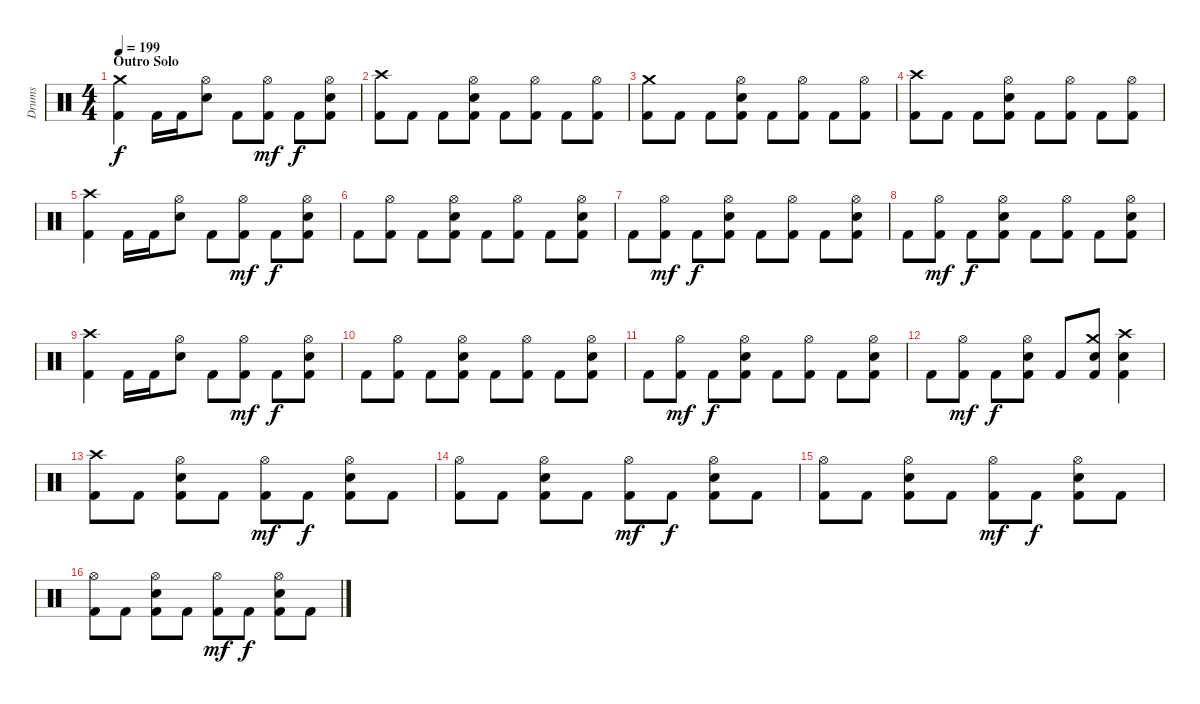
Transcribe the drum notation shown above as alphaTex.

\track ("Drums" "Drums") {instrument percussion}
\staff {score}
\articulation defaults
\ts (4 4)
\section ("" "Outro Solo")
\tempo 199
\clef neutral
\ks c
("Kick (hit) 2" "Crash medium (hit)").4{dy f} "Kick (hit) 2".16 "Kick (hit) 2".16 ("Snare (hit) 2" "Hi-Hat (open)").8 "Kick (hit) 2".8 ("Kick (hit) 2" "Hi-Hat (open)").8{dy mf} "Kick (hit) 2".8{dy f} ("Kick (hit) 2" "Snare (hit) 2" "Hi-Hat (open)").8 |
("Kick (hit) 2" "Crash high (hit)").8 "Kick (hit) 2".8 "Kick (hit) 2".8 ("Kick (hit) 2" "Snare (hit) 2" "Hi-Hat (open)").8 "Kick (hit) 2".8 ("Kick (hit) 2" "Hi-Hat (open)").8 "Kick (hit) 2".8 ("Kick (hit) 2" "Hi-Hat (open)").8 |
("Kick (hit) 2" "Crash medium (hit)").8 "Kick (hit) 2".8 "Kick (hit) 2".8 ("Kick (hit) 2" "Snare (hit) 2" "Hi-Hat (open)").8 "Kick (hit) 2".8 ("Kick (hit) 2" "Hi-Hat (open)").8 "Kick (hit) 2".8 ("Kick (hit) 2" "Hi-Hat (open)").8 |
("Kick (hit) 2" "Crash high (hit)").8 "Kick (hit) 2".8 "Kick (hit) 2".8 ("Kick (hit) 2" "Snare (hit) 2" "Hi-Hat (open)").8 "Kick (hit) 2".8 ("Kick (hit) 2" "Hi-Hat (open)").8 "Kick (hit) 2".8 ("Kick (hit) 2" "Hi-Hat (open)").8 |
("Kick (hit) 2" "Crash high (hit)").4 "Kick (hit) 2".16 "Kick (hit) 2".16 ("Snare (hit) 2" "Hi-Hat (open)").8 "Kick (hit) 2".8 ("Kick (hit) 2" "Hi-Hat (open)").8{dy mf} "Kick (hit) 2".8{dy f} ("Kick (hit) 2" "Snare (hit) 2" "Hi-Hat (open)").8 |
"Kick (hit) 2".8 ("Kick (hit) 2" "Hi-Hat (open)").8 "Kick (hit) 2".8 ("Kick (hit) 2" "Snare (hit) 2" "Hi-Hat (open)").8 "Kick (hit) 2".8 ("Kick (hit) 2" "Hi-Hat (open)").8 "Kick (hit) 2".8 ("Kick (hit) 2" "Snare (hit) 2" "Hi-Hat (open)").8 |
"Kick (hit) 2".8 ("Kick (hit) 2" "Hi-Hat (open)").8{dy mf} "Kick (hit) 2".8{dy f} ("Kick (hit) 2" "Snare (hit) 2" "Hi-Hat (open)").8 "Kick (hit) 2".8 ("Kick (hit) 2" "Hi-Hat (open)").8 "Kick (hit) 2".8 ("Kick (hit) 2" "Snare (hit) 2" "Hi-Hat (open)").8 |
"Kick (hit) 2".8 ("Kick (hit) 2" "Hi-Hat (open)").8{dy mf} "Kick (hit) 2".8{dy f} ("Kick (hit) 2" "Snare (hit) 2" "Hi-Hat (open)").8 "Kick (hit) 2".8 ("Kick (hit) 2" "Hi-Hat (open)").8 "Kick (hit) 2".8 ("Kick (hit) 2" "Snare (hit) 2" "Hi-Hat (open)").8 |
("Kick (hit) 2" "Crash high (hit)").4 "Kick (hit) 2".16 "Kick (hit) 2".16 ("Snare (hit) 2" "Hi-Hat (open)").8 "Kick (hit) 2".8 ("Kick (hit) 2" "Hi-Hat (open)").8{dy mf} "Kick (hit) 2".8{dy f} ("Kick (hit) 2" "Snare (hit) 2" "Hi-Hat (open)").8 |
"Kick (hit) 2".8 ("Kick (hit) 2" "Hi-Hat (open)").8 "Kick (hit) 2".8 ("Kick (hit) 2" "Snare (hit) 2" "Hi-Hat (open)").8 "Kick (hit) 2".8 ("Kick (hit) 2" "Hi-Hat (open)").8 "Kick (hit) 2".8 ("Kick (hit) 2" "Snare (hit) 2" "Hi-Hat (open)").8 |
"Kick (hit) 2".8 ("Kick (hit) 2" "Hi-Hat (open)").8{dy mf} "Kick (hit) 2".8{dy f} ("Kick (hit) 2" "Snare (hit) 2" "Hi-Hat (open)").8 "Kick (hit) 2".8 ("Kick (hit) 2" "Hi-Hat (open)").8 "Kick (hit) 2".8 ("Kick (hit) 2" "Snare (hit) 2" "Hi-Hat (open)").8 |
"Kick (hit) 2".8 ("Kick (hit) 2" "Hi-Hat (open)").8{dy mf} "Kick (hit) 2".8{dy f} ("Kick (hit) 2" "Snare (hit) 2" "Hi-Hat (open)").8 "Kick (hit) 2".8 ("Kick (hit) 2" "Snare (hit) 2" "Crash medium (hit)").8 ("Kick (hit) 2" "Snare (hit) 2" "Crash high (hit)").4 |
\section ("" "")
("Kick (hit) 2" "Crash high (hit)").8 "Kick (hit) 2".8 ("Kick (hit) 2" "Snare (hit) 2" "Hi-Hat (open)").8 "Kick (hit) 2".8 ("Kick (hit) 2" "Hi-Hat (open)").8{dy mf} "Kick (hit) 2".8{dy f} ("Kick (hit) 2" "Snare (hit) 2" "Hi-Hat (open)").8 "Kick (hit) 2".8 |
("Kick (hit) 2" "Hi-Hat (open)").8 "Kick (hit) 2".8 ("Kick (hit) 2" "Snare (hit) 2" "Hi-Hat (open)").8 "Kick (hit) 2".8 ("Kick (hit) 2" "Hi-Hat (open)").8{dy mf} "Kick (hit) 2".8{dy f} ("Kick (hit) 2" "Snare (hit) 2" "Hi-Hat (open)").8 "Kick (hit) 2".8 |
("Kick (hit) 2" "Hi-Hat (open)").8 "Kick (hit) 2".8 ("Kick (hit) 2" "Snare (hit) 2" "Hi-Hat (open)").8 "Kick (hit) 2".8 ("Kick (hit) 2" "Hi-Hat (open)").8{dy mf} "Kick (hit) 2".8{dy f} ("Kick (hit) 2" "Snare (hit) 2" "Hi-Hat (open)").8 "Kick (hit) 2".8 |
("Kick (hit) 2" "Hi-Hat (open)").8 "Kick (hit) 2".8 ("Kick (hit) 2" "Snare (hit) 2" "Hi-Hat (open)").8 "Kick (hit) 2".8 ("Kick (hit) 2" "Hi-Hat (open)").8{dy mf} "Kick (hit) 2".8{dy f} ("Kick (hit) 2" "Snare (hit) 2" "Hi-Hat (open)").8 "Kick (hit) 2".8
